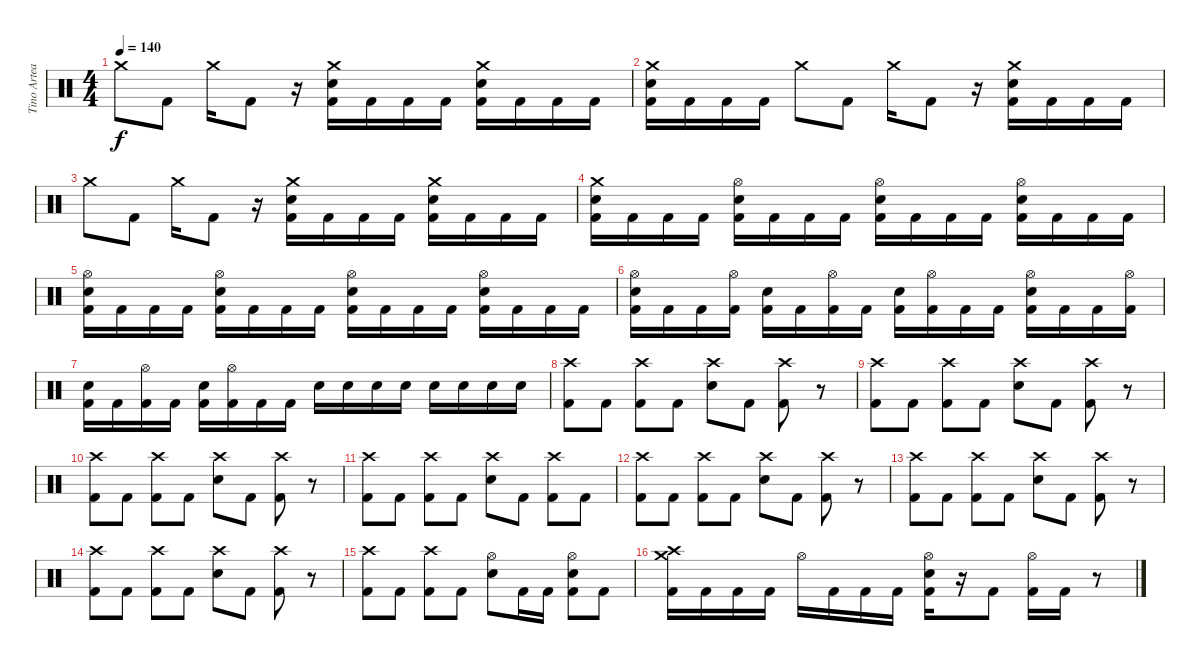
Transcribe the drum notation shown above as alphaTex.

\track ("Tino Arteaga" "Tino Artea") {instrument percussion}
\staff {score}
\articulation defaults
\ts (4 4)
\tempo 140
\clef neutral
\ks c "Crash medium (hit)".8{dy f} "Kick (hit) 2".8 "Crash medium (hit)".16 "Kick (hit) 2".8
r.16 ("Crash medium (hit)" "Electric Snare (hit)" "Kick (hit) 2").16 "Kick (hit) 2".16 "Kick (hit) 2".16 "Kick (hit) 2".16 ("Crash medium (hit)" "Electric Snare (hit)" "Kick (hit) 2").16 "Kick (hit) 2".16 "Kick (hit) 2".16 "Kick (hit) 2".16 |
("Crash medium (hit)" "Electric Snare (hit)" "Kick (hit) 2").16 "Kick (hit) 2".16 "Kick (hit) 2".16 "Kick (hit) 2".16 "Crash medium (hit)".8 "Kick (hit) 2".8 "Crash medium (hit)".16 "Kick (hit) 2".8 r.16 ("Crash medium (hit)" "Electric Snare (hit)" "Kick (hit) 2").16 "Kick (hit) 2".16 "Kick (hit) 2".16 "Kick (hit) 2".16 |
"Crash medium (hit)".8 "Kick (hit) 2".8 "Crash medium (hit)".16 "Kick (hit) 2".8 r.16 ("Crash medium (hit)" "Electric Snare (hit)" "Kick (hit) 2").16 "Kick (hit) 2".16 "Kick (hit) 2".16 "Kick (hit) 2".16 ("Crash medium (hit)" "Electric Snare (hit)" "Kick (hit) 2").16 "Kick (hit) 2".16 "Kick (hit) 2".16 "Kick (hit) 2".16 |
("Crash medium (hit)" "Electric Snare (hit)" "Kick (hit) 2").16 "Kick (hit) 2".16 "Kick (hit) 2".16 "Kick (hit) 2".16 ("Hi-Hat (open)" "Electric Snare (hit)" "Kick (hit) 2").16 "Kick (hit) 2".16 "Kick (hit) 2".16 "Kick (hit) 2".16 ("Hi-Hat (open)" "Electric Snare (hit)" "Kick (hit) 2").16 "Kick (hit) 2".16 "Kick (hit) 2".16 "Kick (hit) 2".16 ("Hi-Hat (open)" "Electric Snare (hit)" "Kick (hit) 2").16 "Kick (hit) 2".16 "Kick (hit) 2".16 "Kick (hit) 2".16 |
("Hi-Hat (open)" "Electric Snare (hit)" "Kick (hit) 2").16 "Kick (hit) 2".16 "Kick (hit) 2".16 "Kick (hit) 2".16 ("Hi-Hat (open)" "Electric Snare (hit)" "Kick (hit) 2").16 "Kick (hit) 2".16 "Kick (hit) 2".16 "Kick (hit) 2".16 ("Hi-Hat (open)" "Electric Snare (hit)" "Kick (hit) 2").16 "Kick (hit) 2".16 "Kick (hit) 2".16 "Kick (hit) 2".16 ("Hi-Hat (open)" "Electric Snare (hit)" "Kick (hit) 2").16 "Kick (hit) 2".16 "Kick (hit) 2".16 "Kick (hit) 2".16 |
("Hi-Hat (open)" "Electric Snare (hit)" "Kick (hit) 2").16 "Kick (hit) 2".16 "Kick (hit) 2".16 ("Hi-Hat (open)" "Kick (hit) 2").16 ("Electric Snare (hit)" "Kick (hit) 2").16 "Kick (hit) 2".16 ("Hi-Hat (open)" "Kick (hit) 2").16 "Kick (hit) 2".16 ("Electric Snare (hit)" "Kick (hit) 2").16 ("Hi-Hat (open)" "Kick (hit) 2").16 "Kick (hit) 2".16 "Kick (hit) 2".16 ("Hi-Hat (open)" "Electric Snare (hit)" "Kick (hit) 2").16 "Kick (hit) 2".16 "Kick (hit) 2".16 ("Hi-Hat (open)" "Kick (hit) 2").16 |
("Electric Snare (hit)" "Kick (hit) 2").16 "Kick (hit) 2".16 ("Hi-Hat (open)" "Kick (hit) 2").16 "Kick (hit) 2".16 ("Electric Snare (hit)" "Kick (hit) 2").16 ("Hi-Hat (open)" "Kick (hit) 2").16 "Kick (hit) 2".16 "Kick (hit) 2".16 "Electric Snare (hit)".16 "Electric Snare (hit)".16 "Electric Snare (hit)".16 "Electric Snare (hit)".16 "Electric Snare (hit)".16 "Electric Snare (hit)".16 "Electric Snare (hit)".16 "Electric Snare (hit)".16 |
("Crash high (hit)" "Kick (hit) 2").8 "Kick (hit) 2".8 ("Crash high (hit)" "Kick (hit) 2").8 "Kick (hit) 2".8 ("Crash high (hit)" "Electric Snare (hit)").8 "Kick (hit) 2".8 ("Crash high (hit)" "Kick (hit) 2").8 r.8 |
("Crash high (hit)" "Kick (hit) 2").8 "Kick (hit) 2".8 ("Crash high (hit)" "Kick (hit) 2").8 "Kick (hit) 2".8 ("Crash high (hit)" "Electric Snare (hit)").8 "Kick (hit) 2".8 ("Crash high (hit)" "Kick (hit) 2").8 r.8 |
("Crash high (hit)" "Kick (hit) 2").8 "Kick (hit) 2".8 ("Crash high (hit)" "Kick (hit) 2").8 "Kick (hit) 2".8 ("Crash high (hit)" "Electric Snare (hit)").8 "Kick (hit) 2".8 ("Crash high (hit)" "Kick (hit) 2").8 r.8 |
("Crash high (hit)" "Kick (hit) 2").8 "Kick (hit) 2".8 ("Crash high (hit)" "Kick (hit) 2").8 "Kick (hit) 2".8 ("Crash high (hit)" "Electric Snare (hit)").8 "Kick (hit) 2".8 ("Crash high (hit)" "Kick (hit) 2").8 "Kick (hit) 2".8 |
("Crash high (hit)" "Kick (hit) 2").8 "Kick (hit) 2".8 ("Crash high (hit)" "Kick (hit) 2").8 "Kick (hit) 2".8 ("Crash high (hit)" "Electric Snare (hit)").8 "Kick (hit) 2".8 ("Crash high (hit)" "Kick (hit) 2").8 r.8 |
("Crash high (hit)" "Kick (hit) 2").8 "Kick (hit) 2".8 ("Crash high (hit)" "Kick (hit) 2").8 "Kick (hit) 2".8 ("Crash high (hit)" "Electric Snare (hit)").8 "Kick (hit) 2".8 ("Crash high (hit)" "Kick (hit) 2").8 r.8 |
("Crash high (hit)" "Kick (hit) 2").8 "Kick (hit) 2".8 ("Crash high (hit)" "Kick (hit) 2").8 "Kick (hit) 2".8 ("Crash high (hit)" "Electric Snare (hit)").8 "Kick (hit) 2".8 ("Crash high (hit)" "Kick (hit) 2").8 r.8 |
("Crash high (hit)" "Kick (hit) 2").8 "Kick (hit) 2".8 ("Crash high (hit)" "Kick (hit) 2").8 "Kick (hit) 2".8 ("Hi-Hat (open)" "Electric Snare (hit)").8 "Kick (hit) 2".16 "Kick (hit) 2".16 ("Hi-Hat (open)" "Electric Snare (hit)" "Kick (hit) 2").8 "Kick (hit) 2".8 |
("Crash medium (hit)" "Crash high (hit)" "Kick (hit) 2").16 "Kick (hit) 2".16 "Kick (hit) 2".16 "Kick (hit) 2".16 "Hi-Hat (open)".16 "Kick (hit) 2".16 "Kick (hit) 2".16 "Kick (hit) 2".16 ("Hi-Hat (open)" "Electric Snare (hit)" "Kick (hit) 2").16 r.16 "Kick (hit) 2".8 ("Hi-Hat (open)" "Kick (hit) 2").16 "Kick (hit) 2".16 r.8
